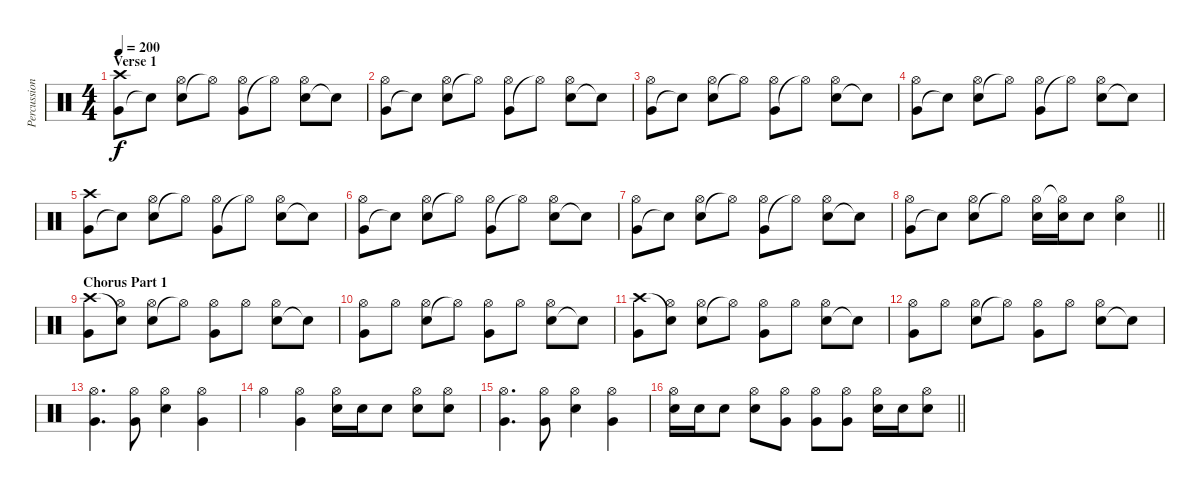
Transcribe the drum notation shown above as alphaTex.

\track ("Percussion" "Percussion") {instrument percussion}
\staff {score}
\articulation defaults
\ts (4 4)
\section ("" "Verse 1")
\tempo 200
\clef neutral
\ks c
("Very Low Tom (hit)" "Crash high (hit)").8{dy f} "Snare (hit)"{t}.8 ("Snare (hit) 2" "Hi-Hat (open)").8 "Hi-Hat (open)"{t}.8 ("Very Low Tom (hit)" "Hi-Hat (open)").8 "Hi-Hat (open)"{t}.8 ("Snare (hit) 2" "Hi-Hat (open)").8 "Snare (hit)"{t}.8 |
("Very Low Tom (hit)" "Hi-Hat (open)").8 "Snare (hit)"{t}.8 ("Snare (hit) 2" "Hi-Hat (open)").8 "Hi-Hat (open)"{t}.8 ("Very Low Tom (hit)" "Hi-Hat (open)").8 "Hi-Hat (open)"{t}.8 ("Snare (hit) 2" "Hi-Hat (open)").8 "Snare (hit)"{t}.8 |
("Very Low Tom (hit)" "Hi-Hat (open)").8 "Snare (hit)"{t}.8 ("Snare (hit) 2" "Hi-Hat (open)").8 "Hi-Hat (open)"{t}.8 ("Very Low Tom (hit)" "Hi-Hat (open)").8 "Hi-Hat (open)"{t}.8 ("Snare (hit) 2" "Hi-Hat (open)").8 "Snare (hit)"{t}.8 |
("Very Low Tom (hit)" "Hi-Hat (open)").8 "Snare (hit)"{t}.8 ("Snare (hit) 2" "Hi-Hat (open)").8 "Hi-Hat (open)"{t}.8 ("Very Low Tom (hit)" "Hi-Hat (open)").8 "Hi-Hat (open)"{t}.8 ("Snare (hit) 2" "Hi-Hat (open)").8 "Snare (hit)"{t}.8 |
("Very Low Tom (hit)" "Crash high (hit)").8 "Snare (hit)"{t}.8 ("Snare (hit) 2" "Hi-Hat (open)").8 "Hi-Hat (open)"{t}.8 ("Very Low Tom (hit)" "Hi-Hat (open)").8 "Hi-Hat (open)"{t}.8 ("Snare (hit) 2" "Hi-Hat (open)").8 "Snare (hit)"{t}.8 |
("Very Low Tom (hit)" "Hi-Hat (open)").8 "Snare (hit)"{t}.8 ("Snare (hit) 2" "Hi-Hat (open)").8 "Hi-Hat (open)"{t}.8 ("Very Low Tom (hit)" "Hi-Hat (open)").8 "Hi-Hat (open)"{t}.8 ("Snare (hit) 2" "Hi-Hat (open)").8 "Snare (hit)"{t}.8 |
("Very Low Tom (hit)" "Hi-Hat (open)").8 "Snare (hit)"{t}.8 ("Snare (hit) 2" "Hi-Hat (open)").8 "Hi-Hat (open)"{t}.8 ("Very Low Tom (hit)" "Hi-Hat (open)").8 "Hi-Hat (open)"{t}.8 ("Snare (hit) 2" "Hi-Hat (open)").8 "Snare (hit)"{t}.8 |
\barLineRight lightlight
("Very Low Tom (hit)" "Hi-Hat (open)").8 "Snare (hit)"{t}.8 ("Snare (hit) 2" "Hi-Hat (open)").8 "Hi-Hat (open)"{t}.8 ("Electric Snare (hit)" "Hi-Hat (open)").16 ("Electric Snare (hit)" "Hi-Hat (open)"{t}).16 "Electric Snare (hit)".8 ("Snare (hit) 2" "Hi-Hat (open)").4 |
\section ("" "Chorus Part 1")
("Very Low Tom (hit)" "Crash high (hit)").8 ("Hi-Hat (open)" "Snare (hit)"{t}).8 ("Snare (hit) 2" "Hi-Hat (open)").8 "Hi-Hat (open)"{t}.8 ("Very Low Tom (hit)" "Hi-Hat (open)").8 "Hi-Hat (open)".8 ("Snare (hit) 2" "Hi-Hat (open)").8 "Snare (hit)"{t}.8 |
("Very Low Tom (hit)" "Hi-Hat (open)").8 "Hi-Hat (open)".8 ("Snare (hit) 2" "Hi-Hat (open)").8 "Hi-Hat (open)"{t}.8 ("Very Low Tom (hit)" "Hi-Hat (open)").8 "Hi-Hat (open)".8 ("Snare (hit) 2" "Hi-Hat (open)").8 "Snare (hit)"{t}.8 |
("Very Low Tom (hit)" "Crash high (hit)").8 ("Hi-Hat (open)" "Snare (hit)"{t}).8 ("Snare (hit) 2" "Hi-Hat (open)").8 "Hi-Hat (open)"{t}.8 ("Very Low Tom (hit)" "Hi-Hat (open)").8 "Hi-Hat (open)".8 ("Snare (hit) 2" "Hi-Hat (open)").8 "Snare (hit)"{t}.8 |
("Very Low Tom (hit)" "Hi-Hat (open)").8 "Hi-Hat (open)".8 ("Snare (hit) 2" "Hi-Hat (open)").8 "Hi-Hat (open)"{t}.8 ("Very Low Tom (hit)" "Hi-Hat (open)").8 "Hi-Hat (open)".8 ("Snare (hit) 2" "Hi-Hat (open)").8 "Snare (hit)"{t}.8 |
("Very Low Tom (hit)" "Hi-Hat (open)").4{d} ("Very Low Tom (hit)" "Hi-Hat (open)").8 ("Snare (hit) 2" "Hi-Hat (open)").4 ("Very Low Tom (hit)" "Hi-Hat (open)").4 |
"Hi-Hat (open)".4 ("Very Low Tom (hit)" "Hi-Hat (open)").4 ("Electric Snare (hit)" "Hi-Hat (open)").16 "Electric Snare (hit)".16 "Electric Snare (hit)".8 ("Snare (hit) 2" "Hi-Hat (open)").8 ("Snare (hit) 2" "Hi-Hat (open)").8 |
("Very Low Tom (hit)" "Hi-Hat (open)").4{d} ("Very Low Tom (hit)" "Hi-Hat (open)").8 ("Snare (hit) 2" "Hi-Hat (open)").4 ("Very Low Tom (hit)" "Hi-Hat (open)").4 |
\barLineRight lightlight
("Electric Snare (hit)" "Hi-Hat (open)").16 "Electric Snare (hit)".16 "Electric Snare (hit)".8 ("Snare (hit) 2" "Hi-Hat (open)").8 ("Very Low Tom (hit)" "Hi-Hat (open)").8 ("Very Low Tom (hit)" "Hi-Hat (open)").8 ("Very Low Tom (hit)" "Hi-Hat (open)").8 ("Snare (hit) 2" "Hi-Hat (open)").16 "Snare (hit) 2".16 ("Snare (hit) 2" "Hi-Hat (open)").8
